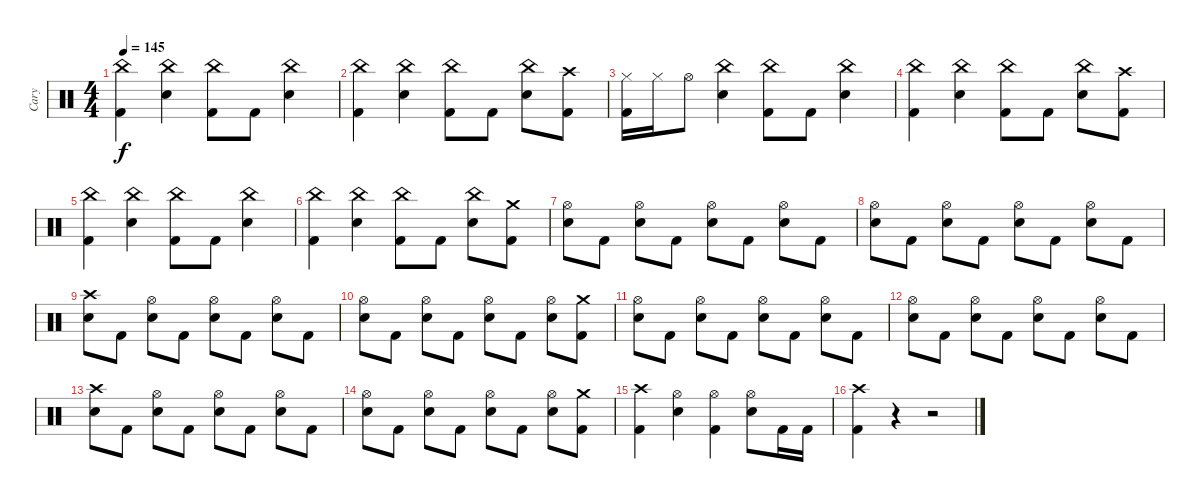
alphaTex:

\track ("Cary" "Cary") {instrument percussion}
\staff {score}
\articulation defaults
\ts (4 4)
\tempo 145
\clef neutral
\ks c
("China (hit)" "Kick (hit) 2").4{dy f} ("China (hit)" "Electric Snare (hit)").4 ("China (hit)" "Kick (hit) 2").8 "Kick (hit) 2".8 ("China (hit)" "Electric Snare (hit)").4 |
("China (hit)" "Kick (hit) 2").4 ("China (hit)" "Electric Snare (hit)").4 ("China (hit)" "Kick (hit) 2").8 "Kick (hit) 2".8 ("China (hit)" "Electric Snare (hit)").8 ("Crash high (hit)" "Kick (hit) 2").8 |
("Hi-Hat (closed)" "Kick (hit) 2").16 "Hi-Hat (closed)".16 "Hi-Hat (open)".8 ("China (hit)" "Electric Snare (hit)").4 ("China (hit)" "Kick (hit) 2").8 "Kick (hit) 2".8 ("China (hit)" "Electric Snare (hit)").4 |
("China (hit)" "Kick (hit) 2").4 ("China (hit)" "Electric Snare (hit)").4 ("China (hit)" "Kick (hit) 2").8 "Kick (hit) 2".8 ("China (hit)" "Electric Snare (hit)").8 ("Crash high (hit)" "Kick (hit) 2").8 |
("China (hit)" "Kick (hit) 2").4 ("China (hit)" "Electric Snare (hit)").4 ("China (hit)" "Kick (hit) 2").8 "Kick (hit) 2".8 ("China (hit)" "Electric Snare (hit)").4 |
("China (hit)" "Kick (hit) 2").4 ("China (hit)" "Electric Snare (hit)").4 ("China (hit)" "Kick (hit) 2").8 "Kick (hit) 2".8 ("China (hit)" "Electric Snare (hit)").8 ("Crash medium (hit)" "Kick (hit) 2").8 |
("Hi-Hat (open)" "Electric Snare (hit)").8 "Kick (hit) 2".8 ("Hi-Hat (open)" "Electric Snare (hit)").8 "Kick (hit) 2".8 ("Hi-Hat (open)" "Electric Snare (hit)").8 "Kick (hit) 2".8 ("Hi-Hat (open)" "Electric Snare (hit)").8 "Kick (hit) 2".8 |
("Hi-Hat (open)" "Electric Snare (hit)").8 "Kick (hit) 2".8 ("Hi-Hat (open)" "Electric Snare (hit)").8 "Kick (hit) 2".8 ("Hi-Hat (open)" "Electric Snare (hit)").8 "Kick (hit) 2".8 ("Hi-Hat (open)" "Electric Snare (hit)").8 "Kick (hit) 2".8 |
("Crash high (hit)" "Electric Snare (hit)").8 "Kick (hit) 2".8 ("Hi-Hat (open)" "Electric Snare (hit)").8 "Kick (hit) 2".8 ("Hi-Hat (open)" "Electric Snare (hit)").8 "Kick (hit) 2".8 ("Hi-Hat (open)" "Electric Snare (hit)").8 "Kick (hit) 2".8 |
("Hi-Hat (open)" "Electric Snare (hit)").8 "Kick (hit) 2".8 ("Hi-Hat (open)" "Electric Snare (hit)").8 "Kick (hit) 2".8 ("Hi-Hat (open)" "Electric Snare (hit)").8 "Kick (hit) 2".8 ("Hi-Hat (open)" "Electric Snare (hit)").8 ("Crash medium (hit)" "Kick (hit) 2").8 |
("Hi-Hat (open)" "Electric Snare (hit)").8 "Kick (hit) 2".8 ("Hi-Hat (open)" "Electric Snare (hit)").8 "Kick (hit) 2".8 ("Hi-Hat (open)" "Electric Snare (hit)").8 "Kick (hit) 2".8 ("Hi-Hat (open)" "Electric Snare (hit)").8 "Kick (hit) 2".8 |
("Hi-Hat (open)" "Electric Snare (hit)").8 "Kick (hit) 2".8 ("Hi-Hat (open)" "Electric Snare (hit)").8 "Kick (hit) 2".8 ("Hi-Hat (open)" "Electric Snare (hit)").8 "Kick (hit) 2".8 ("Hi-Hat (open)" "Electric Snare (hit)").8 "Kick (hit) 2".8 |
("Crash high (hit)" "Electric Snare (hit)").8 "Kick (hit) 2".8 ("Hi-Hat (open)" "Electric Snare (hit)").8 "Kick (hit) 2".8 ("Hi-Hat (open)" "Electric Snare (hit)").8 "Kick (hit) 2".8 ("Hi-Hat (open)" "Electric Snare (hit)").8 "Kick (hit) 2".8 |
("Hi-Hat (open)" "Electric Snare (hit)").8 "Kick (hit) 2".8 ("Hi-Hat (open)" "Electric Snare (hit)").8 "Kick (hit) 2".8 ("Hi-Hat (open)" "Electric Snare (hit)").8 "Kick (hit) 2".8 ("Hi-Hat (open)" "Electric Snare (hit)").8 ("Crash medium (hit)" "Kick (hit) 2").8 |
("Crash high (hit)" "Kick (hit) 2").4 ("Hi-Hat (open)" "Electric Snare (hit)").4 ("Hi-Hat (open)" "Kick (hit) 2").4 ("Hi-Hat (open)" "Electric Snare (hit)").8 "Kick (hit) 2".16 "Kick (hit) 2".16 |
("Crash high (hit)" "Kick (hit) 2").4 r.4 r.2
